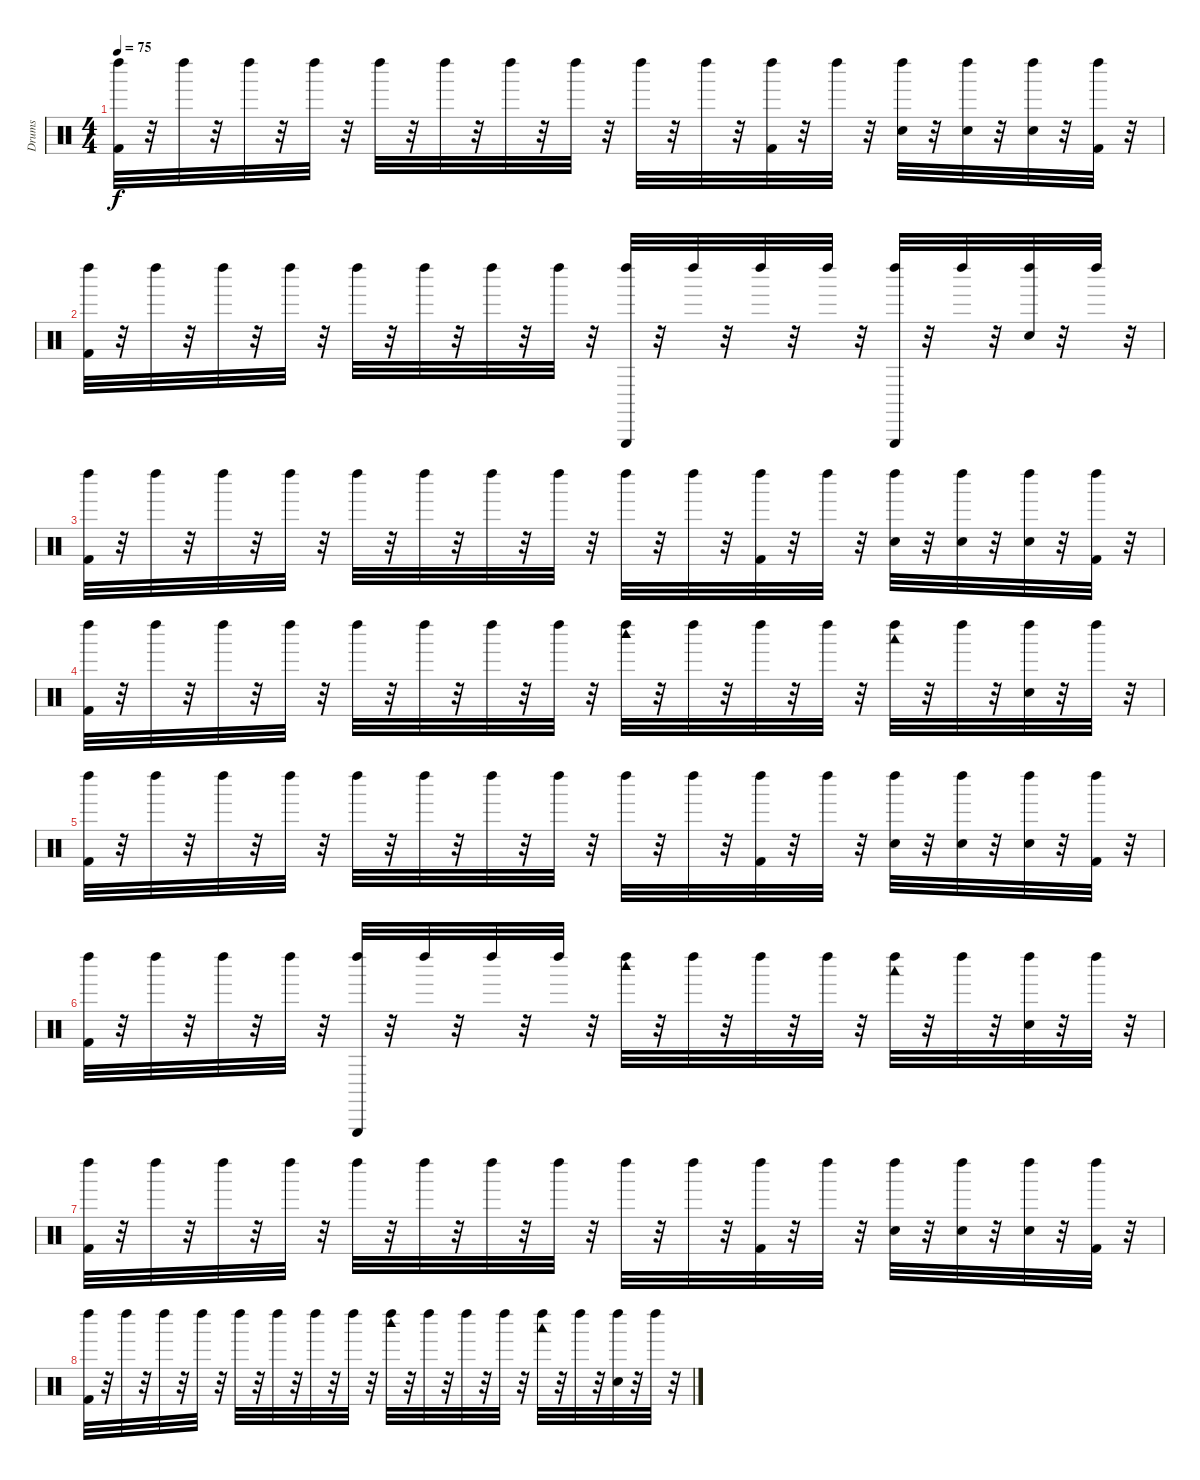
\track ("Drums" "Drums") {instrument percussion}
\staff {score}
\articulation defaults
\ts (4 4)
\tempo 75
\clef neutral
\ks c
("Kick (hit) 2" "Left Maraca (hit)").32{dy f} r.32 "Left Maraca (hit)".32 r.32 "Left Maraca (hit)".32 r.32 "Left Maraca (hit)".32 r.32 "Left Maraca (hit)".32 r.32 "Left Maraca (hit)".32 r.32 "Left Maraca (hit)".32 r.32 "Left Maraca (hit)".32 r.32 "Left Maraca (hit)".32 r.32 "Left Maraca (hit)".32 r.32 ("Kick (hit) 2" "Left Maraca (hit)").32 r.32 "Left Maraca (hit)".32 r.32 ("Snare (hit) 2" "Left Maraca (hit)").32 r.32 ("Snare (hit) 2" "Left Maraca (hit)").32 r.32 ("Snare (hit) 2" "Left Maraca (hit)").32 r.32 ("Kick (hit) 2" "Left Maraca (hit)").32 r.32 |
("Kick (hit) 2" "Left Maraca (hit)").32 r.32 "Left Maraca (hit)".32 r.32 "Left Maraca (hit)".32 r.32 "Left Maraca (hit)".32 r.32 "Left Maraca (hit)".32 r.32 "Left Maraca (hit)".32 r.32 "Left Maraca (hit)".32 r.32 "Left Maraca (hit)".32 r.32 ("Triangle (hit)" "Left Maraca (hit)").32 r.32 "Left Maraca (hit)".32 r.32 "Left Maraca (hit)".32 r.32 "Left Maraca (hit)".32 r.32 ("Triangle (hit)" "Left Maraca (hit)").32 r.32 "Left Maraca (hit)".32 r.32 ("Hand Clap (hit)" "Left Maraca (hit)").32 r.32 "Left Maraca (hit)".32 r.32 |
("Kick (hit) 2" "Left Maraca (hit)").32 r.32 "Left Maraca (hit)".32 r.32 "Left Maraca (hit)".32 r.32 "Left Maraca (hit)".32 r.32 "Left Maraca (hit)".32 r.32 "Left Maraca (hit)".32 r.32 "Left Maraca (hit)".32 r.32 "Left Maraca (hit)".32 r.32 "Left Maraca (hit)".32 r.32 "Left Maraca (hit)".32 r.32 ("Kick (hit) 2" "Left Maraca (hit)").32 r.32 "Left Maraca (hit)".32 r.32 ("Snare (hit) 2" "Left Maraca (hit)").32 r.32 ("Snare (hit) 2" "Left Maraca (hit)").32 r.32 ("Snare (hit) 2" "Left Maraca (hit)").32 r.32 ("Kick (hit) 2" "Left Maraca (hit)").32 r.32 |
("Kick (hit) 2" "Left Maraca (hit)").32 r.32 "Left Maraca (hit)".32 r.32 "Left Maraca (hit)".32 r.32 "Left Maraca (hit)".32 r.32 "Left Maraca (hit)".32 r.32 "Left Maraca (hit)".32 r.32 "Left Maraca (hit)".32 r.32 "Left Maraca (hit)".32 r.32 ("Woodblock high (hit)" "Left Maraca (hit)").32 r.32 "Left Maraca (hit)".32 r.32 "Left Maraca (hit)".32 r.32 "Left Maraca (hit)".32 r.32 ("Woodblock low (hit)" "Left Maraca (hit)").32 r.32 "Left Maraca (hit)".32 r.32 ("Hand Clap (hit)" "Left Maraca (hit)").32 r.32 "Left Maraca (hit)".32 r.32 |
("Kick (hit) 2" "Left Maraca (hit)").32 r.32 "Left Maraca (hit)".32 r.32 "Left Maraca (hit)".32 r.32 "Left Maraca (hit)".32 r.32 "Left Maraca (hit)".32 r.32 "Left Maraca (hit)".32 r.32 "Left Maraca (hit)".32 r.32 "Left Maraca (hit)".32 r.32 "Left Maraca (hit)".32 r.32 "Left Maraca (hit)".32 r.32 ("Kick (hit) 2" "Left Maraca (hit)").32 r.32 "Left Maraca (hit)".32 r.32 ("Snare (hit) 2" "Left Maraca (hit)").32 r.32 ("Snare (hit) 2" "Left Maraca (hit)").32 r.32 ("Snare (hit) 2" "Left Maraca (hit)").32 r.32 ("Kick (hit) 2" "Left Maraca (hit)").32 r.32 |
("Kick (hit) 2" "Left Maraca (hit)").32 r.32 "Left Maraca (hit)".32 r.32 "Left Maraca (hit)".32 r.32 "Left Maraca (hit)".32 r.32 ("Triangle (hit)" "Left Maraca (hit)").32 r.32 "Left Maraca (hit)".32 r.32 "Left Maraca (hit)".32 r.32 "Left Maraca (hit)".32 r.32 ("Woodblock high (hit)" "Left Maraca (hit)").32 r.32 "Left Maraca (hit)".32 r.32 "Left Maraca (hit)".32 r.32 "Left Maraca (hit)".32 r.32 ("Woodblock low (hit)" "Left Maraca (hit)").32 r.32 "Left Maraca (hit)".32 r.32 ("Hand Clap (hit)" "Left Maraca (hit)").32 r.32 "Left Maraca (hit)".32 r.32 |
("Kick (hit) 2" "Left Maraca (hit)").32 r.32 "Left Maraca (hit)".32 r.32 "Left Maraca (hit)".32 r.32 "Left Maraca (hit)".32 r.32 "Left Maraca (hit)".32 r.32 "Left Maraca (hit)".32 r.32 "Left Maraca (hit)".32 r.32 "Left Maraca (hit)".32 r.32 "Left Maraca (hit)".32 r.32 "Left Maraca (hit)".32 r.32 ("Kick (hit) 2" "Left Maraca (hit)").32 r.32 "Left Maraca (hit)".32 r.32 ("Snare (hit) 2" "Left Maraca (hit)").32 r.32 ("Snare (hit) 2" "Left Maraca (hit)").32 r.32 ("Snare (hit) 2" "Left Maraca (hit)").32 r.32 ("Kick (hit) 2" "Left Maraca (hit)").32 r.32 |
("Kick (hit) 2" "Left Maraca (hit)").32 r.32 "Left Maraca (hit)".32 r.32 "Left Maraca (hit)".32 r.32 "Left Maraca (hit)".32 r.32 "Left Maraca (hit)".32 r.32 "Left Maraca (hit)".32 r.32 "Left Maraca (hit)".32 r.32 "Left Maraca (hit)".32 r.32 ("Woodblock high (hit)" "Left Maraca (hit)").32 r.32 "Left Maraca (hit)".32 r.32 "Left Maraca (hit)".32 r.32 "Left Maraca (hit)".32 r.32 ("Woodblock low (hit)" "Left Maraca (hit)").32 r.32 "Left Maraca (hit)".32 r.32 ("Hand Clap (hit)" "Left Maraca (hit)").32 r.32 "Left Maraca (hit)".32 r.32
